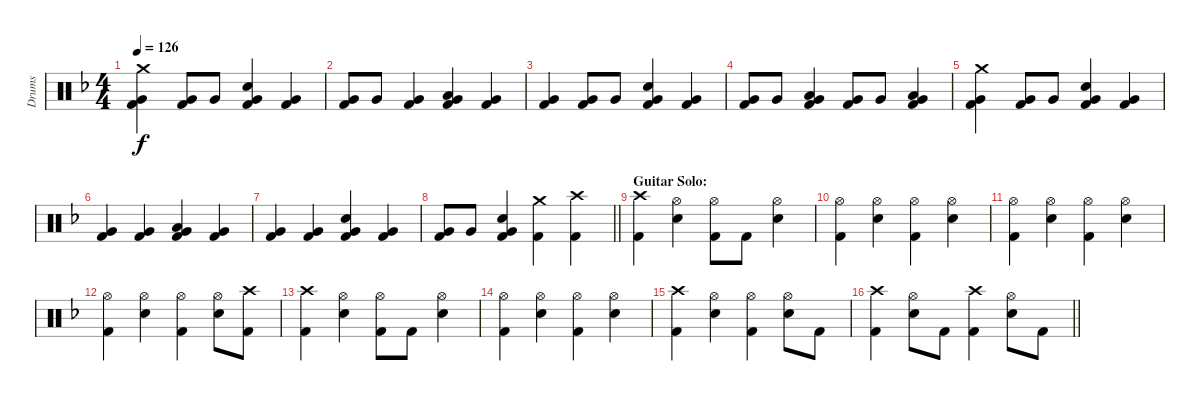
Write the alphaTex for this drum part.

\track ("Drums" "Drums") {instrument percussion}
\staff {score}
\articulation defaults
\ts (4 4)
\tempo 126
\clef neutral
\ks dminor
("Crash medium (hit)" "Very Low Tom (hit)" "Kick (hit) 2").4{dy f} ("Very Low Tom (hit)" "Kick (hit) 2").8 "Very Low Tom (hit)".8 ("Very Low Tom (hit)" "Electric Snare (hit)" "Kick (hit) 2").4 ("Very Low Tom (hit)" "Kick (hit) 2").4 |
("Very Low Tom (hit)" "Kick (hit) 2").8 "Very Low Tom (hit)".8 ("Very Low Tom (hit)" "Kick (hit) 2").4 ("Low Tom (hit)" "Very Low Tom (hit)" "Kick (hit) 2").4 ("Very Low Tom (hit)" "Kick (hit) 2").4 |
("Very Low Tom (hit)" "Kick (hit) 2").4 ("Very Low Tom (hit)" "Kick (hit) 2").8 "Very Low Tom (hit)".8 ("Very Low Tom (hit)" "Electric Snare (hit)" "Kick (hit) 2").4 ("Very Low Tom (hit)" "Kick (hit) 2").4 |
("Very Low Tom (hit)" "Kick (hit) 2").8 "Very Low Tom (hit)".8 ("Low Tom (hit)" "Very Low Tom (hit)" "Kick (hit) 2").4 ("Very Low Tom (hit)" "Kick (hit) 2").8 "Very Low Tom (hit)".8 ("Low Tom (hit)" "Very Low Tom (hit)" "Kick (hit) 2").4 |
("Crash medium (hit)" "Very Low Tom (hit)" "Kick (hit) 2").4 ("Very Low Tom (hit)" "Kick (hit) 2").8 "Very Low Tom (hit)".8 ("Very Low Tom (hit)" "Electric Snare (hit)" "Kick (hit) 2").4 ("Very Low Tom (hit)" "Kick (hit) 2").4 |
("Very Low Tom (hit)" "Kick (hit) 2").4 ("Very Low Tom (hit)" "Kick (hit) 2").4 ("Low Tom (hit)" "Very Low Tom (hit)" "Kick (hit) 2").4 ("Very Low Tom (hit)" "Kick (hit) 2").4 |
("Very Low Tom (hit)" "Kick (hit) 2").4 ("Very Low Tom (hit)" "Kick (hit) 2").4 ("Very Low Tom (hit)" "Electric Snare (hit)" "Kick (hit) 2").4 ("Very Low Tom (hit)" "Kick (hit) 2").4 |
\barLineRight lightlight
("Very Low Tom (hit)" "Kick (hit) 2").8 "Very Low Tom (hit)".8 ("Very Low Tom (hit)" "Electric Snare (hit)" "Kick (hit) 2").4 ("Crash medium (hit)" "Kick (hit) 2").4 ("Crash high (hit)" "Kick (hit) 2").4 |
\section ("" "Guitar Solo:")
("Crash high (hit)" "Kick (hit) 2").4 ("Hi-Hat (open)" "Electric Snare (hit)").4 ("Hi-Hat (open)" "Kick (hit) 2").8 "Kick (hit) 2".8 ("Hi-Hat (open)" "Electric Snare (hit)").4 |
("Hi-Hat (open)" "Kick (hit) 2").4 ("Hi-Hat (open)" "Electric Snare (hit)").4 ("Hi-Hat (open)" "Kick (hit) 2").4 ("Hi-Hat (open)" "Electric Snare (hit)").4 |
("Hi-Hat (open)" "Kick (hit) 2").4 ("Hi-Hat (open)" "Electric Snare (hit)").4 ("Hi-Hat (open)" "Kick (hit) 2").4 ("Hi-Hat (open)" "Electric Snare (hit)").4 |
("Hi-Hat (open)" "Kick (hit) 2").4 ("Hi-Hat (open)" "Electric Snare (hit)").4 ("Hi-Hat (open)" "Kick (hit) 2").4 ("Hi-Hat (open)" "Electric Snare (hit)").8 ("Crash high (hit)" "Kick (hit) 2").8 |
("Crash high (hit)" "Kick (hit) 2").4 ("Hi-Hat (open)" "Electric Snare (hit)").4 ("Hi-Hat (open)" "Kick (hit) 2").8 "Kick (hit) 2".8 ("Hi-Hat (open)" "Electric Snare (hit)").4 |
("Hi-Hat (open)" "Kick (hit) 2").4 ("Hi-Hat (open)" "Electric Snare (hit)").4 ("Hi-Hat (open)" "Kick (hit) 2").4 ("Hi-Hat (open)" "Electric Snare (hit)").4 |
("Crash high (hit)" "Kick (hit) 2").4 ("Hi-Hat (open)" "Electric Snare (hit)").4 ("Hi-Hat (open)" "Kick (hit) 2").4 ("Hi-Hat (open)" "Electric Snare (hit)").8 "Kick (hit) 2".8 |
\barLineRight lightlight
("Crash high (hit)" "Kick (hit) 2").4 ("Hi-Hat (open)" "Electric Snare (hit)").8 "Kick (hit) 2".8 ("Crash high (hit)" "Kick (hit) 2").4 ("Hi-Hat (open)" "Electric Snare (hit)").8 "Kick (hit) 2".8
